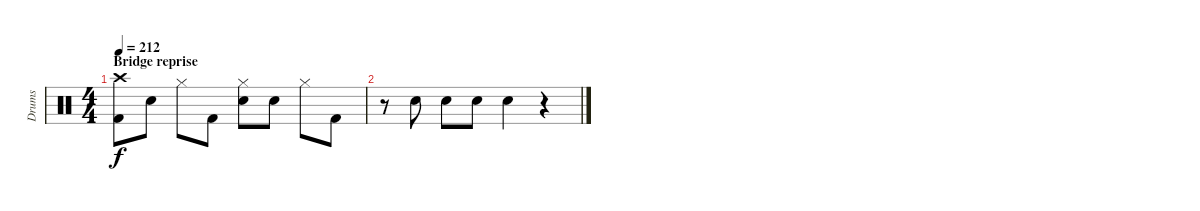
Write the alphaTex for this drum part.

\track ("Drums" "Drums") {instrument percussion}
\staff {score}
\articulation defaults
\ts (4 4)
\section ("" "Bridge reprise")
\tempo 212
\clef neutral
\ks c
("Crash high (hit)" "Kick (hit) 2").8{dy f} "Snare (hit) 2".8 "Hi-Hat (closed)".8 "Kick (hit) 2".8 ("Hi-Hat (closed)" "Snare (hit) 2").8 "Snare (hit) 2".8 "Hi-Hat (closed)".8 "Kick (hit) 2".8 |
r.8 "Snare (hit) 2".8 "Snare (hit) 2".8 "Snare (hit) 2".8 "Snare (hit) 2".4 r.4
